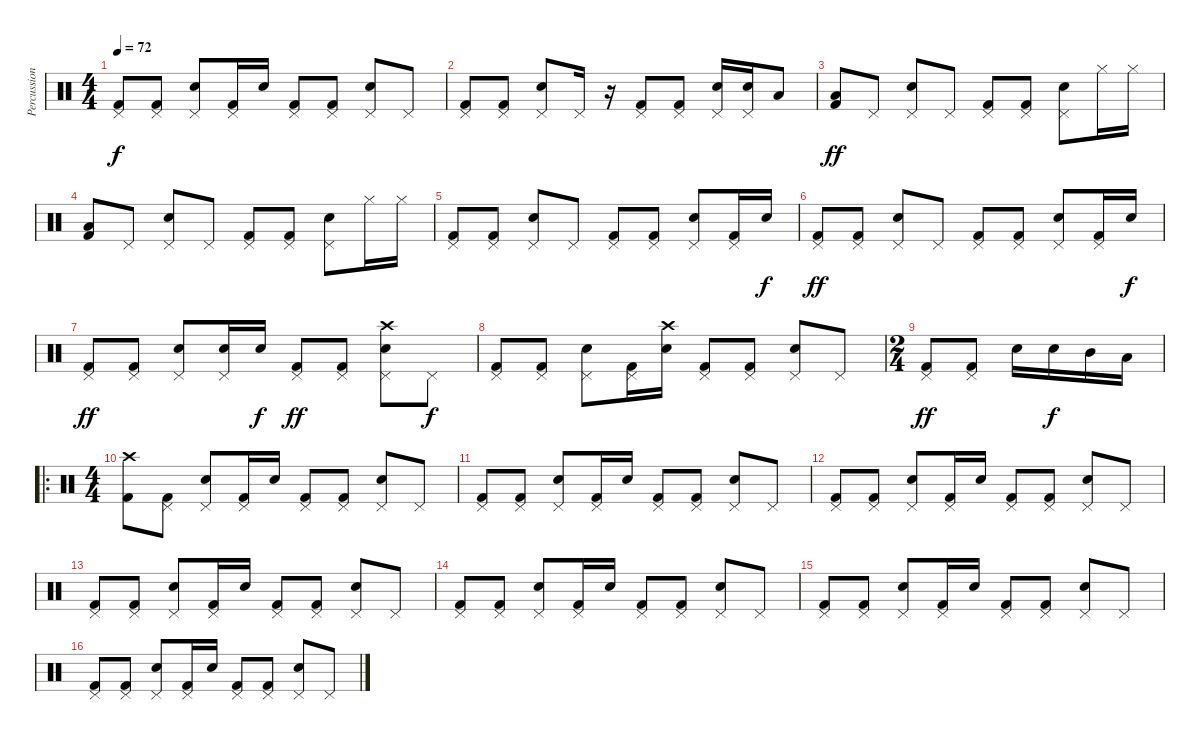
\track ("Percussion" "Percussion") {instrument percussion}
\staff {score}
\articulation defaults
\ts (4 4)
\tempo 72
\clef neutral
\ks c
("Pedal Hi-Hat (hit)" "Kick (hit) 2").8{dy f} ("Pedal Hi-Hat (hit)" "Kick (hit) 2").8 ("Pedal Hi-Hat (hit)" "Snare (hit) 2").8 ("Pedal Hi-Hat (hit)" "Kick (hit) 2").16 "Snare (hit) 2".16 ("Pedal Hi-Hat (hit)" "Kick (hit) 2").8 ("Pedal Hi-Hat (hit)" "Kick (hit) 2").8 ("Pedal Hi-Hat (hit)" "Snare (hit) 2").8 "Pedal Hi-Hat (hit)".8 |
("Pedal Hi-Hat (hit)" "Kick (hit) 2").8 ("Pedal Hi-Hat (hit)" "Kick (hit) 2").8 ("Pedal Hi-Hat (hit)" "Snare (hit) 2").8 "Pedal Hi-Hat (hit)".16 r.16 ("Pedal Hi-Hat (hit)" "Kick (hit) 2").8 ("Pedal Hi-Hat (hit)" "Kick (hit) 2").8 ("Pedal Hi-Hat (hit)" "Snare (hit) 2").16 ("Pedal Hi-Hat (hit)" "Snare (hit) 2").16 "Low Tom (hit)".8 |
("Low Tom (hit)" "Kick (hit) 2").8{dy ff} "Pedal Hi-Hat (hit)".8 ("Pedal Hi-Hat (hit)" "Snare (hit) 2").8 "Pedal Hi-Hat (hit)".8 ("Pedal Hi-Hat (hit)" "Kick (hit) 2").8 ("Pedal Hi-Hat (hit)" "Kick (hit) 2").8 ("Pedal Hi-Hat (hit)" "Snare (hit) 2").8 "Hi-Hat (closed)".16 "Hi-Hat (closed)".16 |
("Low Tom (hit)" "Kick (hit) 2").8 "Pedal Hi-Hat (hit)".8 ("Pedal Hi-Hat (hit)" "Snare (hit) 2").8 "Pedal Hi-Hat (hit)".8 ("Pedal Hi-Hat (hit)" "Kick (hit) 2").8 ("Pedal Hi-Hat (hit)" "Kick (hit) 2").8 ("Pedal Hi-Hat (hit)" "Snare (hit) 2").8 "Hi-Hat (closed)".16 "Hi-Hat (closed)".16 |
("Pedal Hi-Hat (hit)" "Kick (hit) 2").8 ("Pedal Hi-Hat (hit)" "Kick (hit) 2").8 ("Pedal Hi-Hat (hit)" "Snare (hit) 2").8 "Pedal Hi-Hat (hit)".8 ("Pedal Hi-Hat (hit)" "Kick (hit) 2").8 ("Pedal Hi-Hat (hit)" "Kick (hit) 2").8 ("Pedal Hi-Hat (hit)" "Snare (hit) 2").8 ("Pedal Hi-Hat (hit)" "Kick (hit) 2").16 "Snare (hit) 2".16{dy f} |
("Pedal Hi-Hat (hit)" "Kick (hit) 2").8{dy ff} ("Pedal Hi-Hat (hit)" "Kick (hit) 2").8 ("Pedal Hi-Hat (hit)" "Snare (hit) 2").8 "Pedal Hi-Hat (hit)".8 ("Pedal Hi-Hat (hit)" "Kick (hit) 2").8 ("Pedal Hi-Hat (hit)" "Kick (hit) 2").8 ("Pedal Hi-Hat (hit)" "Snare (hit) 2").8 ("Pedal Hi-Hat (hit)" "Kick (hit) 2").16 "Snare (hit) 2".16{dy f} |
("Pedal Hi-Hat (hit)" "Kick (hit) 2").8{dy ff} ("Pedal Hi-Hat (hit)" "Kick (hit) 2").8 ("Pedal Hi-Hat (hit)" "Snare (hit) 2").8 ("Pedal Hi-Hat (hit)" "Snare (hit) 2").16 "Snare (hit) 2".16{dy f} ("Pedal Hi-Hat (hit)" "Kick (hit) 2").8{dy ff} ("Pedal Hi-Hat (hit)" "Kick (hit) 2").8 ("Pedal Hi-Hat (hit)" "Crash high (hit)" "Snare (hit) 2").8 "Pedal Hi-Hat (hit)".8{dy f} |
("Pedal Hi-Hat (hit)" "Kick (hit) 2").8 ("Pedal Hi-Hat (hit)" "Kick (hit) 2").8 ("Pedal Hi-Hat (hit)" "Snare (hit) 2").8 ("Pedal Hi-Hat (hit)" "Kick (hit) 2").16 ("Crash high (hit)" "Snare (hit) 2").16 ("Pedal Hi-Hat (hit)" "Kick (hit) 2").8 ("Pedal Hi-Hat (hit)" "Kick (hit) 2").8 ("Pedal Hi-Hat (hit)" "Snare (hit) 2").8 "Pedal Hi-Hat (hit)".8 |
\ts (2 4)
("Pedal Hi-Hat (hit)" "Kick (hit) 2").8{dy ff} ("Pedal Hi-Hat (hit)" "Kick (hit) 2").8 "Snare (hit) 2".16 "Snare (hit) 2".16{dy f} "Mid Tom (hit)".16 "Low Tom (hit)".16 |
\ro
\ts (4 4)
("Crash high (hit)" "Kick (hit) 2").8 ("Pedal Hi-Hat (hit)" "Kick (hit) 2").8 ("Pedal Hi-Hat (hit)" "Snare (hit) 2").8 ("Pedal Hi-Hat (hit)" "Kick (hit) 2").16 "Snare (hit) 2".16 ("Pedal Hi-Hat (hit)" "Kick (hit) 2").8 ("Pedal Hi-Hat (hit)" "Kick (hit) 2").8 ("Pedal Hi-Hat (hit)" "Snare (hit) 2").8 "Pedal Hi-Hat (hit)".8 |
("Pedal Hi-Hat (hit)" "Kick (hit) 2").8 ("Pedal Hi-Hat (hit)" "Kick (hit) 2").8 ("Pedal Hi-Hat (hit)" "Snare (hit) 2").8 ("Pedal Hi-Hat (hit)" "Kick (hit) 2").16 "Snare (hit) 2".16 ("Pedal Hi-Hat (hit)" "Kick (hit) 2").8 ("Pedal Hi-Hat (hit)" "Kick (hit) 2").8 ("Pedal Hi-Hat (hit)" "Snare (hit) 2").8 "Pedal Hi-Hat (hit)".8 |
("Pedal Hi-Hat (hit)" "Kick (hit) 2").8 ("Pedal Hi-Hat (hit)" "Kick (hit) 2").8 ("Pedal Hi-Hat (hit)" "Snare (hit) 2").8 ("Pedal Hi-Hat (hit)" "Kick (hit) 2").16 "Snare (hit) 2".16 ("Pedal Hi-Hat (hit)" "Kick (hit) 2").8 ("Pedal Hi-Hat (hit)" "Kick (hit) 2").8 ("Pedal Hi-Hat (hit)" "Snare (hit) 2").8 "Pedal Hi-Hat (hit)".8 |
("Pedal Hi-Hat (hit)" "Kick (hit) 2").8 ("Pedal Hi-Hat (hit)" "Kick (hit) 2").8 ("Pedal Hi-Hat (hit)" "Snare (hit) 2").8 ("Pedal Hi-Hat (hit)" "Kick (hit) 2").16 "Snare (hit) 2".16 ("Pedal Hi-Hat (hit)" "Kick (hit) 2").8 ("Pedal Hi-Hat (hit)" "Kick (hit) 2").8 ("Pedal Hi-Hat (hit)" "Snare (hit) 2").8 "Pedal Hi-Hat (hit)".8 |
("Pedal Hi-Hat (hit)" "Kick (hit) 2").8 ("Pedal Hi-Hat (hit)" "Kick (hit) 2").8 ("Pedal Hi-Hat (hit)" "Snare (hit) 2").8 ("Pedal Hi-Hat (hit)" "Kick (hit) 2").16 "Snare (hit) 2".16 ("Pedal Hi-Hat (hit)" "Kick (hit) 2").8 ("Pedal Hi-Hat (hit)" "Kick (hit) 2").8 ("Pedal Hi-Hat (hit)" "Snare (hit) 2").8 "Pedal Hi-Hat (hit)".8 |
("Pedal Hi-Hat (hit)" "Kick (hit) 2").8 ("Pedal Hi-Hat (hit)" "Kick (hit) 2").8 ("Pedal Hi-Hat (hit)" "Snare (hit) 2").8 ("Pedal Hi-Hat (hit)" "Kick (hit) 2").16 "Snare (hit) 2".16 ("Pedal Hi-Hat (hit)" "Kick (hit) 2").8 ("Pedal Hi-Hat (hit)" "Kick (hit) 2").8 ("Pedal Hi-Hat (hit)" "Snare (hit) 2").8 "Pedal Hi-Hat (hit)".8 |
("Pedal Hi-Hat (hit)" "Kick (hit) 2").8 ("Pedal Hi-Hat (hit)" "Kick (hit) 2").8 ("Pedal Hi-Hat (hit)" "Snare (hit) 2").8 ("Pedal Hi-Hat (hit)" "Kick (hit) 2").16 "Snare (hit) 2".16 ("Pedal Hi-Hat (hit)" "Kick (hit) 2").8 ("Pedal Hi-Hat (hit)" "Kick (hit) 2").8 ("Pedal Hi-Hat (hit)" "Snare (hit) 2").8 "Pedal Hi-Hat (hit)".8
